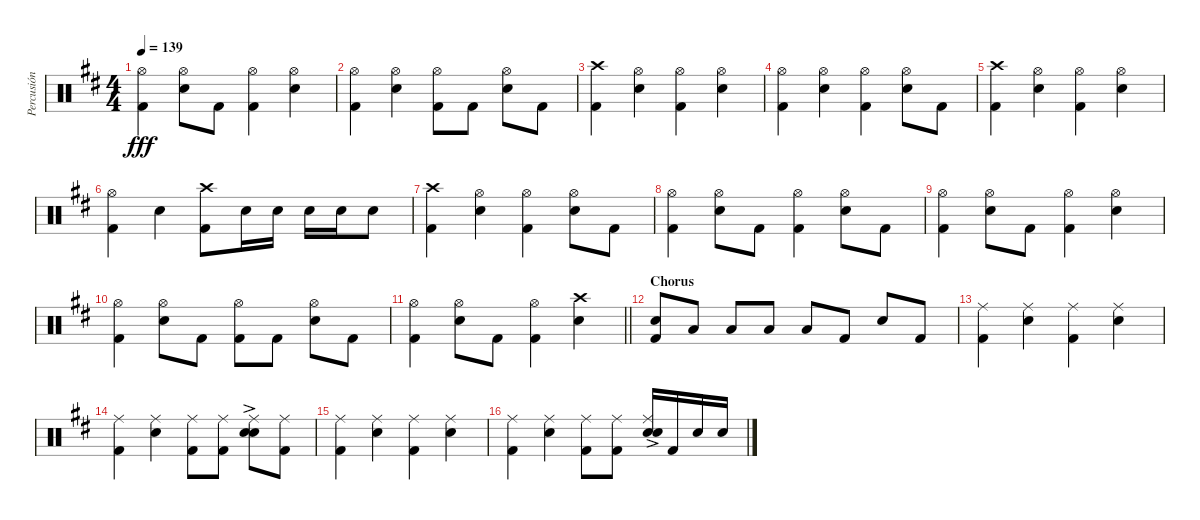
\track ("Percusión" "Percusión") {instrument percussion}
\staff {score}
\articulation defaults
\ts (4 4)
\tempo 139
\clef neutral
\ks d
("Hi-Hat (open)" "Kick (hit) 2").4{dy fff} ("Hi-Hat (open)" "Electric Snare (hit)").8 "Kick (hit) 2".8 ("Hi-Hat (open)" "Kick (hit) 2").4 ("Hi-Hat (open)" "Electric Snare (hit)").4 |
("Hi-Hat (open)" "Kick (hit) 2").4 ("Hi-Hat (open)" "Electric Snare (hit)").4 ("Hi-Hat (open)" "Kick (hit) 2").8 "Kick (hit) 2".8 ("Hi-Hat (open)" "Electric Snare (hit)").8 "Kick (hit) 2".8 |
("Crash high (hit)" "Kick (hit) 2").4 ("Hi-Hat (open)" "Electric Snare (hit)").4 ("Hi-Hat (open)" "Kick (hit) 2").4 ("Hi-Hat (open)" "Electric Snare (hit)").4 |
("Hi-Hat (open)" "Kick (hit) 2").4 ("Hi-Hat (open)" "Electric Snare (hit)").4 ("Hi-Hat (open)" "Kick (hit) 2").4 ("Hi-Hat (open)" "Electric Snare (hit)").8 "Kick (hit) 2".8 |
("Crash high (hit)" "Kick (hit) 2").4 ("Hi-Hat (open)" "Electric Snare (hit)").4 ("Hi-Hat (open)" "Kick (hit) 2").4 ("Hi-Hat (open)" "Electric Snare (hit)").4 |
("Hi-Hat (open)" "Kick (hit) 2").4 "Electric Snare (hit)".4 ("Crash high (hit)" "Kick (hit) 2").8 "Electric Snare (hit)".16 "Electric Snare (hit)".16 "Electric Snare (hit)".16 "Electric Snare (hit)".16 "Electric Snare (hit)".8 |
("Crash high (hit)" "Kick (hit) 2").4 ("Hi-Hat (open)" "Electric Snare (hit)").4 ("Hi-Hat (open)" "Kick (hit) 2").4 ("Hi-Hat (open)" "Electric Snare (hit)").8 "Kick (hit) 2".8 |
("Hi-Hat (open)" "Kick (hit) 2").4 ("Hi-Hat (open)" "Electric Snare (hit)").8 "Kick (hit) 2".8 ("Hi-Hat (open)" "Kick (hit) 2").4 ("Hi-Hat (open)" "Electric Snare (hit)").8 "Kick (hit) 2".8 |
("Hi-Hat (open)" "Kick (hit) 2").4 ("Hi-Hat (open)" "Electric Snare (hit)").8 "Kick (hit) 2".8 ("Hi-Hat (open)" "Kick (hit) 2").4 ("Hi-Hat (open)" "Electric Snare (hit)").4 |
("Hi-Hat (open)" "Kick (hit) 2").4 ("Hi-Hat (open)" "Electric Snare (hit)").8 "Kick (hit) 2".8 ("Hi-Hat (open)" "Kick (hit) 2").8 "Kick (hit) 2".8 ("Hi-Hat (open)" "Electric Snare (hit)").8 "Kick (hit) 2".8 |
\barLineRight lightlight
("Hi-Hat (open)" "Kick (hit) 2").4 ("Hi-Hat (open)" "Electric Snare (hit)").8 "Kick (hit) 2".8 ("Hi-Hat (open)" "Kick (hit) 2").4 ("Crash high (hit)" "Electric Snare (hit)").4 |
\section ("" "Chorus")
("Electric Snare (hit)" "Kick (hit) 2").8 "Low Floor Tom (hit)".8 "Low Floor Tom (hit)".8 "Low Floor Tom (hit)".8 "Low Floor Tom (hit)".8 "Kick (hit) 2".8 "Electric Snare (hit)".8 "Kick (hit) 2".8 |
("Ride (middle)" "Kick (hit) 2").4 ("Ride (middle)" "Electric Snare (hit)").4 ("Ride (middle)" "Kick (hit) 2").4 ("Ride (middle)" "Electric Snare (hit)").4 |
("Ride (middle)" "Kick (hit) 2").4 ("Ride (middle)" "Electric Snare (hit)").4 ("Ride (middle)" "Kick (hit) 2").8 ("Ride (middle)" "Kick (hit) 2").8 ("Ride (middle)" "Electric Snare (hit)"{ac} "Snare (hit) 2").8 ("Ride (middle)" "Kick (hit) 2").8 |
("Ride (middle)" "Kick (hit) 2").4 ("Ride (middle)" "Electric Snare (hit)").4 ("Ride (middle)" "Kick (hit) 2").4 ("Ride (middle)" "Electric Snare (hit)").4 |
("Ride (middle)" "Kick (hit) 2").4 ("Ride (middle)" "Electric Snare (hit)").4 ("Ride (middle)" "Kick (hit) 2").8 ("Ride (middle)" "Kick (hit) 2").8 ("Ride (middle)" "Electric Snare (hit)"{ac} "Snare (hit) 2").16 "Kick (hit) 2".16 "Electric Snare (hit)".16 "Electric Snare (hit)".16
